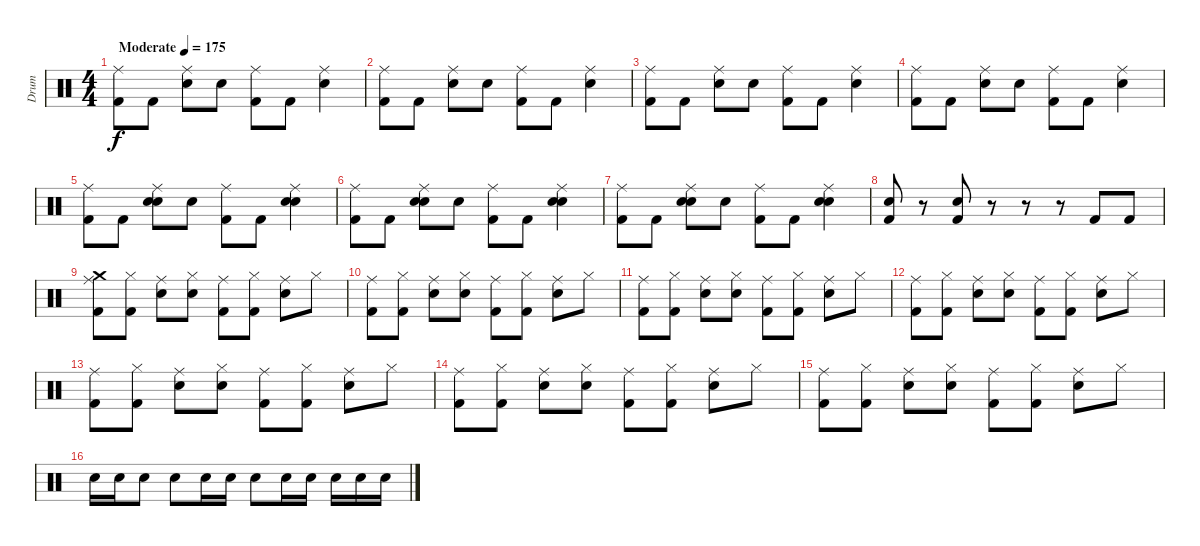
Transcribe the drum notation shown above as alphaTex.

\track ("Drum" "Drum") {instrument percussion}
\staff {score}
\articulation defaults
\ts (4 4)
\tempo (175 "Moderate")
\clef neutral
\ks c
("Ride (middle)" "Kick (hit) 2").8{dy f} "Kick (hit) 2".8 ("Ride (middle)" "Electric Snare (hit)").8 "Electric Snare (hit)".8 ("Ride (middle)" "Kick (hit) 2").8 "Kick (hit) 2".8 ("Ride (middle)" "Electric Snare (hit)").4 |
("Ride (middle)" "Kick (hit) 2").8 "Kick (hit) 2".8 ("Ride (middle)" "Electric Snare (hit)").8 "Electric Snare (hit)".8 ("Ride (middle)" "Kick (hit) 2").8 "Kick (hit) 2".8 ("Ride (middle)" "Electric Snare (hit)").4 |
("Ride (middle)" "Kick (hit) 2").8 "Kick (hit) 2".8 ("Ride (middle)" "Electric Snare (hit)").8 "Electric Snare (hit)".8 ("Ride (middle)" "Kick (hit) 2").8 "Kick (hit) 2".8 ("Ride (middle)" "Electric Snare (hit)").4 |
("Ride (middle)" "Kick (hit) 2").8 "Kick (hit) 2".8 ("Ride (middle)" "Electric Snare (hit)").8 "Electric Snare (hit)".8 ("Ride (middle)" "Kick (hit) 2").8 "Kick (hit) 2".8 ("Ride (middle)" "Electric Snare (hit)").4 |
("Ride (middle)" "Kick (hit) 2").8 "Kick (hit) 2".8 ("Ride (middle)" "Electric Snare (hit)" "Hand Clap (hit)").8 "Electric Snare (hit)".8 ("Ride (middle)" "Kick (hit) 2").8 "Kick (hit) 2".8 ("Ride (middle)" "Electric Snare (hit)" "Hand Clap (hit)").4 |
("Ride (middle)" "Kick (hit) 2").8 "Kick (hit) 2".8 ("Ride (middle)" "Electric Snare (hit)" "Hand Clap (hit)").8 "Electric Snare (hit)".8 ("Ride (middle)" "Kick (hit) 2").8 "Kick (hit) 2".8 ("Ride (middle)" "Electric Snare (hit)" "Hand Clap (hit)").4 |
("Ride (middle)" "Kick (hit) 2").8 "Kick (hit) 2".8 ("Ride (middle)" "Electric Snare (hit)" "Hand Clap (hit)").8 "Electric Snare (hit)".8 ("Ride (middle)" "Kick (hit) 2").8 "Kick (hit) 2".8 ("Ride (middle)" "Electric Snare (hit)" "Hand Clap (hit)").4 |
("Electric Snare (hit)" "Kick (hit) 2").8 r.8 ("Electric Snare (hit)" "Kick (hit) 2").8 r.8 r.8 r.8 "Kick (hit) 2".8 "Kick (hit) 2".8 |
("Ride (middle)" "Kick (hit) 2" "Crash medium (hit)").8 ("Hi-Hat (closed)" "Kick (hit) 2").8 ("Ride (middle)" "Electric Snare (hit)").8 ("Hi-Hat (closed)" "Electric Snare (hit)").8 ("Ride (middle)" "Kick (hit) 2").8 ("Hi-Hat (closed)" "Kick (hit) 2").8 ("Ride (middle)" "Electric Snare (hit)").8 "Hi-Hat (closed)".8 |
("Ride (middle)" "Kick (hit) 2").8 ("Hi-Hat (closed)" "Kick (hit) 2").8 ("Ride (middle)" "Electric Snare (hit)").8 ("Hi-Hat (closed)" "Electric Snare (hit)").8 ("Ride (middle)" "Kick (hit) 2").8 ("Hi-Hat (closed)" "Kick (hit) 2").8 ("Ride (middle)" "Electric Snare (hit)").8 "Hi-Hat (closed)".8 |
("Ride (middle)" "Kick (hit) 2").8 ("Hi-Hat (closed)" "Kick (hit) 2").8 ("Ride (middle)" "Electric Snare (hit)").8 ("Hi-Hat (closed)" "Electric Snare (hit)").8 ("Ride (middle)" "Kick (hit) 2").8 ("Hi-Hat (closed)" "Kick (hit) 2").8 ("Ride (middle)" "Electric Snare (hit)").8 "Hi-Hat (closed)".8 |
("Ride (middle)" "Kick (hit) 2").8 ("Hi-Hat (closed)" "Kick (hit) 2").8 ("Ride (middle)" "Electric Snare (hit)").8 ("Hi-Hat (closed)" "Electric Snare (hit)").8 ("Ride (middle)" "Kick (hit) 2").8 ("Hi-Hat (closed)" "Kick (hit) 2").8 ("Ride (middle)" "Electric Snare (hit)").8 "Hi-Hat (closed)".8 |
("Ride (middle)" "Kick (hit) 2").8 ("Hi-Hat (closed)" "Kick (hit) 2").8 ("Ride (middle)" "Electric Snare (hit)").8 ("Hi-Hat (closed)" "Electric Snare (hit)").8 ("Ride (middle)" "Kick (hit) 2").8 ("Hi-Hat (closed)" "Kick (hit) 2").8 ("Ride (middle)" "Electric Snare (hit)").8 "Hi-Hat (closed)".8 |
("Ride (middle)" "Kick (hit) 2").8 ("Hi-Hat (closed)" "Kick (hit) 2").8 ("Ride (middle)" "Electric Snare (hit)").8 ("Hi-Hat (closed)" "Electric Snare (hit)").8 ("Ride (middle)" "Kick (hit) 2").8 ("Hi-Hat (closed)" "Kick (hit) 2").8 ("Ride (middle)" "Electric Snare (hit)").8 "Hi-Hat (closed)".8 |
("Ride (middle)" "Kick (hit) 2").8 ("Hi-Hat (closed)" "Kick (hit) 2").8 ("Ride (middle)" "Electric Snare (hit)").8 ("Hi-Hat (closed)" "Electric Snare (hit)").8 ("Ride (middle)" "Kick (hit) 2").8 ("Hi-Hat (closed)" "Kick (hit) 2").8 ("Ride (middle)" "Electric Snare (hit)").8 "Hi-Hat (closed)".8 |
"Electric Snare (hit)".16 "Electric Snare (hit)".16 "Electric Snare (hit)".8 "Electric Snare (hit)".8 "Electric Snare (hit)".16 "Electric Snare (hit)".16 "Electric Snare (hit)".8 "Electric Snare (hit)".16 "Electric Snare (hit)".16 "Electric Snare (hit)".16 "Electric Snare (hit)".16 "Electric Snare (hit)".16
